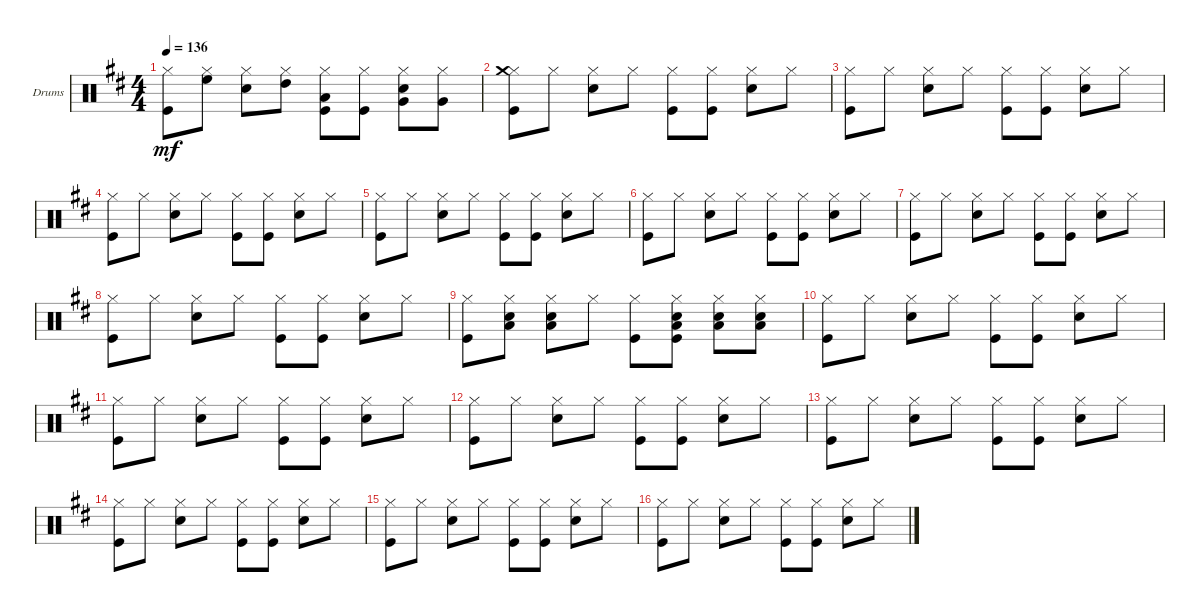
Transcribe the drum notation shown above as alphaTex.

\defaultSystemsLayout 4
\bracketExtendMode groupsimilarinstruments
\firstSystemTrackNameOrientation horizontal
\otherSystemsTrackNameOrientation horizontal
\track ("Greg Bissonette Drums" "Drums") {instrument percussion}
\staff {score}
\articulation defaults
\ts (4 4)
\tempo 136
\clef neutral
\scale
0.333333
\ks d
("Kick (hit)" "Hi-Hat (closed)").8{dy mf} ("High Floor Tom (hit)" "Hi-Hat (closed)").8 ("Snare (hit) 2" "Hi-Hat (closed)").8 ("High Tom (hit)" "Hi-Hat (closed)").8 ("Kick (hit)" "Hi-Hat (closed)" "Low Tom (hit)").8 ("Kick (hit)" "Hi-Hat (closed)").8 ("Snare (hit) 2" "Very Low Tom (hit)" "Hi-Hat (closed)").8 ("Very Low Tom (hit)" "Hi-Hat (closed)").8 |
\scale
0.333333 ("Kick (hit)" "Hi-Hat (closed)" "Crash medium (hit)").8 "Hi-Hat (closed)".8 ("Snare (hit) 2" "Hi-Hat (closed)").8 "Hi-Hat (closed)".8 ("Kick (hit)" "Hi-Hat (closed)").8 ("Kick (hit)" "Hi-Hat (closed)").8 ("Snare (hit) 2" "Hi-Hat (closed)").8 "Hi-Hat (closed)".8 |
\scale
0.333333 ("Kick (hit)" "Hi-Hat (closed)").8 "Hi-Hat (closed)".8 ("Snare (hit) 2" "Hi-Hat (closed)").8 "Hi-Hat (closed)".8 ("Kick (hit)" "Hi-Hat (closed)").8 ("Kick (hit)" "Hi-Hat (closed)").8 ("Snare (hit) 2" "Hi-Hat (closed)").8 "Hi-Hat (closed)".8 |
\scale
0.333333 ("Kick (hit)" "Hi-Hat (closed)").8 "Hi-Hat (closed)".8 ("Snare (hit) 2" "Hi-Hat (closed)").8 "Hi-Hat (closed)".8 ("Kick (hit)" "Hi-Hat (closed)").8 ("Kick (hit)" "Hi-Hat (closed)").8 ("Snare (hit) 2" "Hi-Hat (closed)").8 "Hi-Hat (closed)".8 |
("Kick (hit)" "Hi-Hat (closed)").8 "Hi-Hat (closed)".8 ("Snare (hit) 2" "Hi-Hat (closed)").8 "Hi-Hat (closed)".8 ("Kick (hit)" "Hi-Hat (closed)").8 ("Kick (hit)" "Hi-Hat (closed)").8 ("Snare (hit) 2" "Hi-Hat (closed)").8 "Hi-Hat (closed)".8 |
("Kick (hit)" "Hi-Hat (closed)").8 "Hi-Hat (closed)".8 ("Snare (hit) 2" "Hi-Hat (closed)").8 "Hi-Hat (closed)".8 ("Kick (hit)" "Hi-Hat (closed)").8 ("Kick (hit)" "Hi-Hat (closed)").8 ("Snare (hit) 2" "Hi-Hat (closed)").8 "Hi-Hat (closed)".8 |
("Kick (hit)" "Hi-Hat (closed)").8 "Hi-Hat (closed)".8 ("Snare (hit) 2" "Hi-Hat (closed)").8 "Hi-Hat (closed)".8 ("Kick (hit)" "Hi-Hat (closed)").8 ("Kick (hit)" "Hi-Hat (closed)").8 ("Snare (hit) 2" "Hi-Hat (closed)").8 "Hi-Hat (closed)".8 |
("Kick (hit)" "Hi-Hat (closed)").8 "Hi-Hat (closed)".8 ("Snare (hit) 2" "Hi-Hat (closed)").8 "Hi-Hat (closed)".8 ("Kick (hit)" "Hi-Hat (closed)").8 ("Kick (hit)" "Hi-Hat (closed)").8 ("Snare (hit) 2" "Hi-Hat (closed)").8 "Hi-Hat (closed)".8 |
("Kick (hit)" "Hi-Hat (closed)").8 ("Snare (hit) 2" "Hi-Hat (closed)" "Low Tom (hit)").8 ("Snare (hit) 2" "Hi-Hat (closed)" "Low Tom (hit)").8 "Hi-Hat (closed)".8 ("Kick (hit)" "Hi-Hat (closed)").8 ("Kick (hit)" "Snare (hit) 2" "Hi-Hat (closed)" "Low Tom (hit)").8 ("Snare (hit) 2" "Hi-Hat (closed)" "Low Tom (hit)").8 ("Snare (hit) 2" "Hi-Hat (closed)" "Low Tom (hit)").8 |
("Kick (hit)" "Hi-Hat (closed)").8 "Hi-Hat (closed)".8 ("Snare (hit) 2" "Hi-Hat (closed)").8 "Hi-Hat (closed)".8 ("Kick (hit)" "Hi-Hat (closed)").8 ("Kick (hit)" "Hi-Hat (closed)").8 ("Snare (hit) 2" "Hi-Hat (closed)").8 "Hi-Hat (closed)".8 |
("Kick (hit)" "Hi-Hat (closed)").8 "Hi-Hat (closed)".8 ("Snare (hit) 2" "Hi-Hat (closed)").8 "Hi-Hat (closed)".8 ("Kick (hit)" "Hi-Hat (closed)").8 ("Kick (hit)" "Hi-Hat (closed)").8 ("Snare (hit) 2" "Hi-Hat (closed)").8 "Hi-Hat (closed)".8 |
("Kick (hit)" "Hi-Hat (closed)").8 "Hi-Hat (closed)".8 ("Snare (hit) 2" "Hi-Hat (closed)").8 "Hi-Hat (closed)".8 ("Kick (hit)" "Hi-Hat (closed)").8 ("Kick (hit)" "Hi-Hat (closed)").8 ("Snare (hit) 2" "Hi-Hat (closed)").8 "Hi-Hat (closed)".8 |
("Kick (hit)" "Hi-Hat (closed)").8 "Hi-Hat (closed)".8 ("Snare (hit) 2" "Hi-Hat (closed)").8 "Hi-Hat (closed)".8 ("Kick (hit)" "Hi-Hat (closed)").8 ("Kick (hit)" "Hi-Hat (closed)").8 ("Snare (hit) 2" "Hi-Hat (closed)").8 "Hi-Hat (closed)".8 |
("Kick (hit)" "Hi-Hat (closed)").8 "Hi-Hat (closed)".8 ("Snare (hit) 2" "Hi-Hat (closed)").8 "Hi-Hat (closed)".8 ("Kick (hit)" "Hi-Hat (closed)").8 ("Kick (hit)" "Hi-Hat (closed)").8 ("Snare (hit) 2" "Hi-Hat (closed)").8 "Hi-Hat (closed)".8 |
("Kick (hit)" "Hi-Hat (closed)").8 "Hi-Hat (closed)".8 ("Snare (hit) 2" "Hi-Hat (closed)").8 "Hi-Hat (closed)".8 ("Kick (hit)" "Hi-Hat (closed)").8 ("Kick (hit)" "Hi-Hat (closed)").8 ("Snare (hit) 2" "Hi-Hat (closed)").8 "Hi-Hat (closed)".8 |
("Kick (hit)" "Hi-Hat (closed)").8 "Hi-Hat (closed)".8 ("Snare (hit) 2" "Hi-Hat (closed)").8 "Hi-Hat (closed)".8 ("Kick (hit)" "Hi-Hat (closed)").8 ("Kick (hit)" "Hi-Hat (closed)").8 ("Snare (hit) 2" "Hi-Hat (closed)").8 "Hi-Hat (closed)".8
